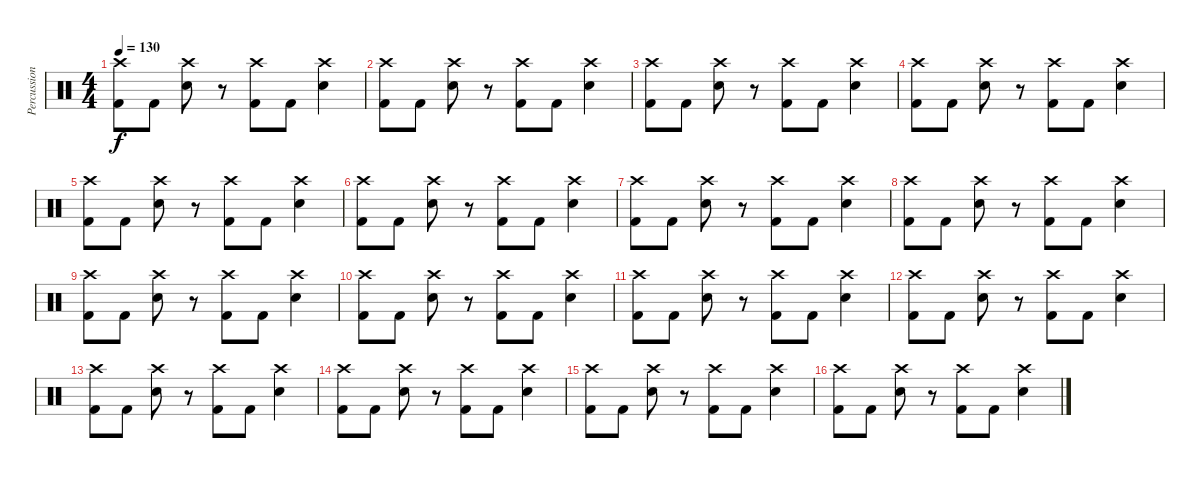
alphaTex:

\track ("Percussion" "Percussion") {instrument percussion}
\staff {score}
\articulation defaults
\ts (4 4)
\tempo 130
\clef neutral
\ks c
("Crash high (hit)" "Kick (hit) 2").8{dy f} "Kick (hit) 2".8 ("Crash high (hit)" "Electric Snare (hit)").8 r.8 ("Crash high (hit)" "Kick (hit) 2").8 "Kick (hit) 2".8 ("Crash high (hit)" "Electric Snare (hit)").4 |
("Crash high (hit)" "Kick (hit) 2").8 "Kick (hit) 2".8 ("Crash high (hit)" "Electric Snare (hit)").8 r.8 ("Crash high (hit)" "Kick (hit) 2").8 "Kick (hit) 2".8 ("Crash high (hit)" "Electric Snare (hit)").4 |
("Crash high (hit)" "Kick (hit) 2").8 "Kick (hit) 2".8 ("Crash high (hit)" "Electric Snare (hit)").8 r.8 ("Crash high (hit)" "Kick (hit) 2").8 "Kick (hit) 2".8 ("Crash high (hit)" "Electric Snare (hit)").4 |
("Crash high (hit)" "Kick (hit) 2").8 "Kick (hit) 2".8 ("Crash high (hit)" "Electric Snare (hit)").8 r.8 ("Crash high (hit)" "Kick (hit) 2").8 "Kick (hit) 2".8 ("Crash high (hit)" "Electric Snare (hit)").4 |
("Crash high (hit)" "Kick (hit) 2").8 "Kick (hit) 2".8 ("Crash high (hit)" "Electric Snare (hit)").8 r.8 ("Crash high (hit)" "Kick (hit) 2").8 "Kick (hit) 2".8 ("Crash high (hit)" "Electric Snare (hit)").4 |
("Crash high (hit)" "Kick (hit) 2").8 "Kick (hit) 2".8 ("Crash high (hit)" "Electric Snare (hit)").8 r.8 ("Crash high (hit)" "Kick (hit) 2").8 "Kick (hit) 2".8 ("Crash high (hit)" "Electric Snare (hit)").4 |
("Crash high (hit)" "Kick (hit) 2").8 "Kick (hit) 2".8 ("Crash high (hit)" "Electric Snare (hit)").8 r.8 ("Crash high (hit)" "Kick (hit) 2").8 "Kick (hit) 2".8 ("Crash high (hit)" "Electric Snare (hit)").4 |
("Crash high (hit)" "Kick (hit) 2").8 "Kick (hit) 2".8 ("Crash high (hit)" "Electric Snare (hit)").8 r.8 ("Crash high (hit)" "Kick (hit) 2").8 "Kick (hit) 2".8 ("Crash high (hit)" "Electric Snare (hit)").4 |
("Crash high (hit)" "Kick (hit) 2").8 "Kick (hit) 2".8 ("Crash high (hit)" "Electric Snare (hit)").8 r.8 ("Crash high (hit)" "Kick (hit) 2").8 "Kick (hit) 2".8 ("Crash high (hit)" "Electric Snare (hit)").4 |
("Crash high (hit)" "Kick (hit) 2").8 "Kick (hit) 2".8 ("Crash high (hit)" "Electric Snare (hit)").8 r.8 ("Crash high (hit)" "Kick (hit) 2").8 "Kick (hit) 2".8 ("Crash high (hit)" "Electric Snare (hit)").4 |
("Crash high (hit)" "Kick (hit) 2").8 "Kick (hit) 2".8 ("Crash high (hit)" "Electric Snare (hit)").8 r.8 ("Crash high (hit)" "Kick (hit) 2").8 "Kick (hit) 2".8 ("Crash high (hit)" "Electric Snare (hit)").4 |
("Crash high (hit)" "Kick (hit) 2").8 "Kick (hit) 2".8 ("Crash high (hit)" "Electric Snare (hit)").8 r.8 ("Crash high (hit)" "Kick (hit) 2").8 "Kick (hit) 2".8 ("Crash high (hit)" "Electric Snare (hit)").4 |
("Crash high (hit)" "Kick (hit) 2").8 "Kick (hit) 2".8 ("Crash high (hit)" "Electric Snare (hit)").8 r.8 ("Crash high (hit)" "Kick (hit) 2").8 "Kick (hit) 2".8 ("Crash high (hit)" "Electric Snare (hit)").4 |
("Crash high (hit)" "Kick (hit) 2").8 "Kick (hit) 2".8 ("Crash high (hit)" "Electric Snare (hit)").8 r.8 ("Crash high (hit)" "Kick (hit) 2").8 "Kick (hit) 2".8 ("Crash high (hit)" "Electric Snare (hit)").4 |
("Crash high (hit)" "Kick (hit) 2").8 "Kick (hit) 2".8 ("Crash high (hit)" "Electric Snare (hit)").8 r.8 ("Crash high (hit)" "Kick (hit) 2").8 "Kick (hit) 2".8 ("Crash high (hit)" "Electric Snare (hit)").4 |
("Crash high (hit)" "Kick (hit) 2").8 "Kick (hit) 2".8 ("Crash high (hit)" "Electric Snare (hit)").8 r.8 ("Crash high (hit)" "Kick (hit) 2").8 "Kick (hit) 2".8 ("Crash high (hit)" "Electric Snare (hit)").4
